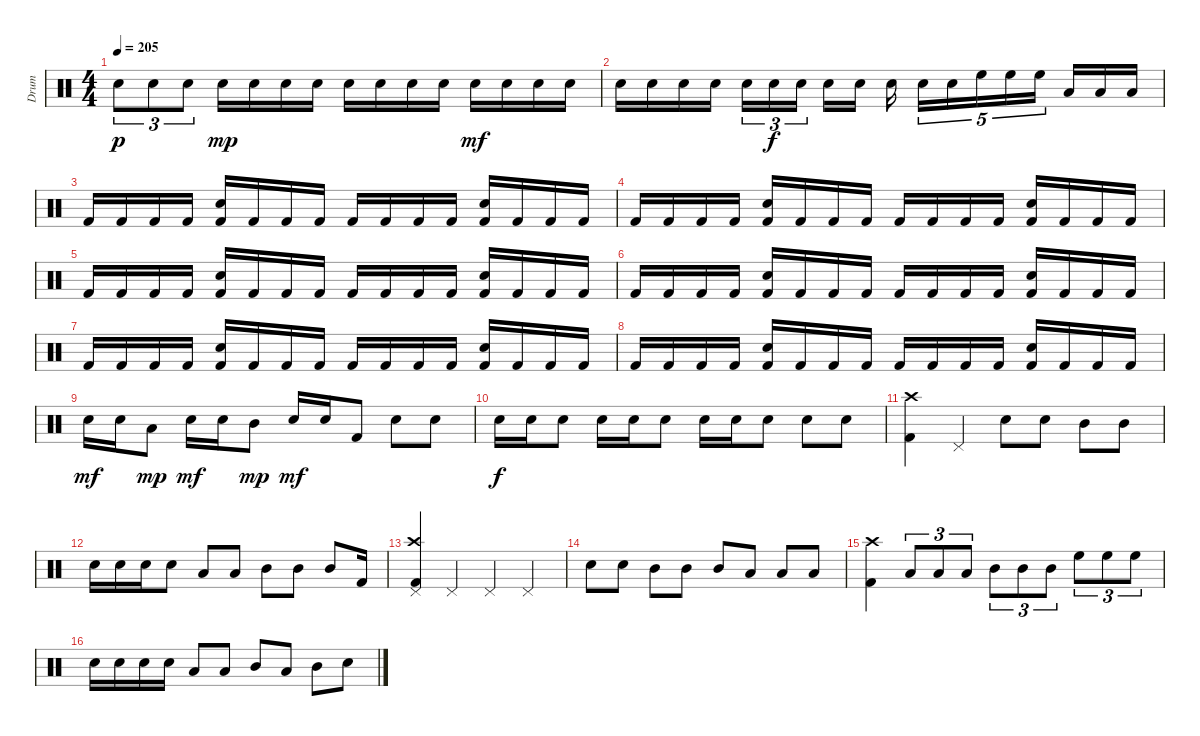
\track ("Drum" "Drum") {instrument percussion}
\staff {score}
\articulation defaults
\ts (4 4)
\tempo 205
\clef neutral
\ks c "Electric Snare (hit)".8{tu (3 2) dy p} "Electric Snare (hit)".8{tu (3 2)} "Electric Snare (hit)".8{tu (3 2)} "Electric Snare (hit)".16{dy mp} "Electric Snare (hit)".16 "Electric Snare (hit)".16 "Electric Snare (hit)".16 "Electric Snare (hit)".16 "Electric Snare (hit)".16 "Electric Snare (hit)".16 "Electric Snare (hit)".16 "Electric Snare (hit)".16{dy mf} "Electric Snare (hit)".16 "Electric Snare (hit)".16 "Electric Snare (hit)".16
|
"Electric Snare (hit)".16 "Electric Snare (hit)".16 "Electric Snare (hit)".16 "Electric Snare (hit)".16 "Electric Snare (hit)".16{tu (3 2)} "Electric Snare (hit)".16{tu (3 2) dy f} "Electric Snare (hit)".16{tu (3 2)} "Electric Snare (hit)".16 "Electric Snare (hit)".16 "Electric Snare (hit)".16 "Electric Snare (hit)".16{tu (5 4)} "Electric Snare (hit)".16{tu (5 4)} "High Floor Tom (hit)".16{tu (5 4)} "High Floor Tom (hit)".16{tu (5 4)} "High Floor Tom (hit)".16{tu (5 4)} "Low Tom (hit)".16 "Low Tom (hit)".16 "Low Tom (hit)".16 |
"Kick (hit) 2".16 "Kick (hit) 2".16 "Kick (hit) 2".16 "Kick (hit) 2".16 ("Kick (hit) 2" "Electric Snare (hit)").16 "Kick (hit) 2".16 "Kick (hit) 2".16 "Kick (hit) 2".16 "Kick (hit) 2".16 "Kick (hit) 2".16 "Kick (hit) 2".16 "Kick (hit) 2".16 ("Kick (hit) 2" "Electric Snare (hit)").16 "Kick (hit) 2".16 "Kick (hit) 2".16 "Kick (hit) 2".16 |
"Kick (hit) 2".16 "Kick (hit) 2".16 "Kick (hit) 2".16 "Kick (hit) 2".16 ("Kick (hit) 2" "Electric Snare (hit)").16 "Kick (hit) 2".16 "Kick (hit) 2".16 "Kick (hit) 2".16 "Kick (hit) 2".16 "Kick (hit) 2".16 "Kick (hit) 2".16 "Kick (hit) 2".16 ("Kick (hit) 2" "Electric Snare (hit)").16 "Kick (hit) 2".16 "Kick (hit) 2".16 "Kick (hit) 2".16 |
"Kick (hit) 2".16 "Kick (hit) 2".16 "Kick (hit) 2".16 "Kick (hit) 2".16 ("Kick (hit) 2" "Electric Snare (hit)").16 "Kick (hit) 2".16 "Kick (hit) 2".16 "Kick (hit) 2".16 "Kick (hit) 2".16 "Kick (hit) 2".16 "Kick (hit) 2".16 "Kick (hit) 2".16 ("Kick (hit) 2" "Electric Snare (hit)").16 "Kick (hit) 2".16 "Kick (hit) 2".16 "Kick (hit) 2".16 |
"Kick (hit) 2".16 "Kick (hit) 2".16 "Kick (hit) 2".16 "Kick (hit) 2".16 ("Kick (hit) 2" "Electric Snare (hit)").16 "Kick (hit) 2".16 "Kick (hit) 2".16 "Kick (hit) 2".16 "Kick (hit) 2".16 "Kick (hit) 2".16 "Kick (hit) 2".16 "Kick (hit) 2".16 ("Kick (hit) 2" "Electric Snare (hit)").16 "Kick (hit) 2".16 "Kick (hit) 2".16 "Kick (hit) 2".16 |
"Kick (hit) 2".16 "Kick (hit) 2".16 "Kick (hit) 2".16 "Kick (hit) 2".16 ("Kick (hit) 2" "Electric Snare (hit)").16 "Kick (hit) 2".16 "Kick (hit) 2".16 "Kick (hit) 2".16 "Kick (hit) 2".16 "Kick (hit) 2".16 "Kick (hit) 2".16 "Kick (hit) 2".16 ("Kick (hit) 2" "Electric Snare (hit)").16 "Kick (hit) 2".16 "Kick (hit) 2".16 "Kick (hit) 2".16 |
"Kick (hit) 2".16 "Kick (hit) 2".16 "Kick (hit) 2".16 "Kick (hit) 2".16 ("Kick (hit) 2" "Electric Snare (hit)").16 "Kick (hit) 2".16 "Kick (hit) 2".16 "Kick (hit) 2".16 "Kick (hit) 2".16 "Kick (hit) 2".16 "Kick (hit) 2".16 "Kick (hit) 2".16 ("Kick (hit) 2" "Electric Snare (hit)").16 "Kick (hit) 2".16 "Kick (hit) 2".16 "Kick (hit) 2".16 |
"Electric Snare (hit)".16{dy mf} "Electric Snare (hit)".16 "Low Tom (hit)".8{dy mp} "Electric Snare (hit)".16{dy mf} "Electric Snare (hit)".16 "Mid Tom (hit)".8{dy mp} "Electric Snare (hit)".16{dy mf} "Electric Snare (hit)".16 "Kick (hit) 2".8 "Electric Snare (hit)".8 "Electric Snare (hit)".8 |
"Electric Snare (hit)".16{dy f} "Electric Snare (hit)".16 "Electric Snare (hit)".8 "Electric Snare (hit)".16 "Electric Snare (hit)".16 "Electric Snare (hit)".8 "Electric Snare (hit)".16 "Electric Snare (hit)".16 "Electric Snare (hit)".8 "Electric Snare (hit)".8 "Electric Snare (hit)".8 |
("Crash high (hit)" "Kick (hit) 2").4 "Pedal Hi-Hat (hit)".4 "Electric Snare (hit)".8 "Electric Snare (hit)".8 "Mid Tom (hit)".8 "Mid Tom (hit)".8 |
"Electric Snare (hit)".16 "Electric Snare (hit)".16 "Electric Snare (hit)".16 "Electric Snare (hit)".8 "Low Tom (hit)".8 "Low Tom (hit)".8 "Mid Tom (hit)".8 "Mid Tom (hit)".8 "Mid Tom (hit)".8 "Kick (hit) 2".16 |
("Kick (hit) 2" "Crash high (hit)" "Pedal Hi-Hat (hit)").4 "Pedal Hi-Hat (hit)".4 "Pedal Hi-Hat (hit)".4 "Pedal Hi-Hat (hit)".4 |
"Electric Snare (hit)".8 "Electric Snare (hit)".8 "Mid Tom (hit)".8 "Mid Tom (hit)".8 "Mid Tom (hit)".8 "Low Tom (hit)".8 "Low Tom (hit)".8 "Low Tom (hit)".8 |
("Kick (hit) 2" "Crash high (hit)").4 "Low Tom (hit)".8{tu (3 2)} "Low Tom (hit)".8{tu (3 2)} "Low Tom (hit)".8{tu (3 2)} "Mid Tom (hit)".8{tu (3 2)} "Mid Tom (hit)".8{tu (3 2)} "Mid Tom (hit)".8{tu (3 2)} "High Floor Tom (hit)".8{tu (3 2)} "High Floor Tom (hit)".8{tu (3 2)} "High Floor Tom (hit)".8{tu (3 2)} |
"Electric Snare (hit)".16 "Electric Snare (hit)".16 "Electric Snare (hit)".16 "Electric Snare (hit)".16 "Low Tom (hit)".8 "Low Tom (hit)".8 "Mid Tom (hit)".8 "Low Tom (hit)".8 "Mid Tom (hit)".8 "Electric Snare (hit)".8
